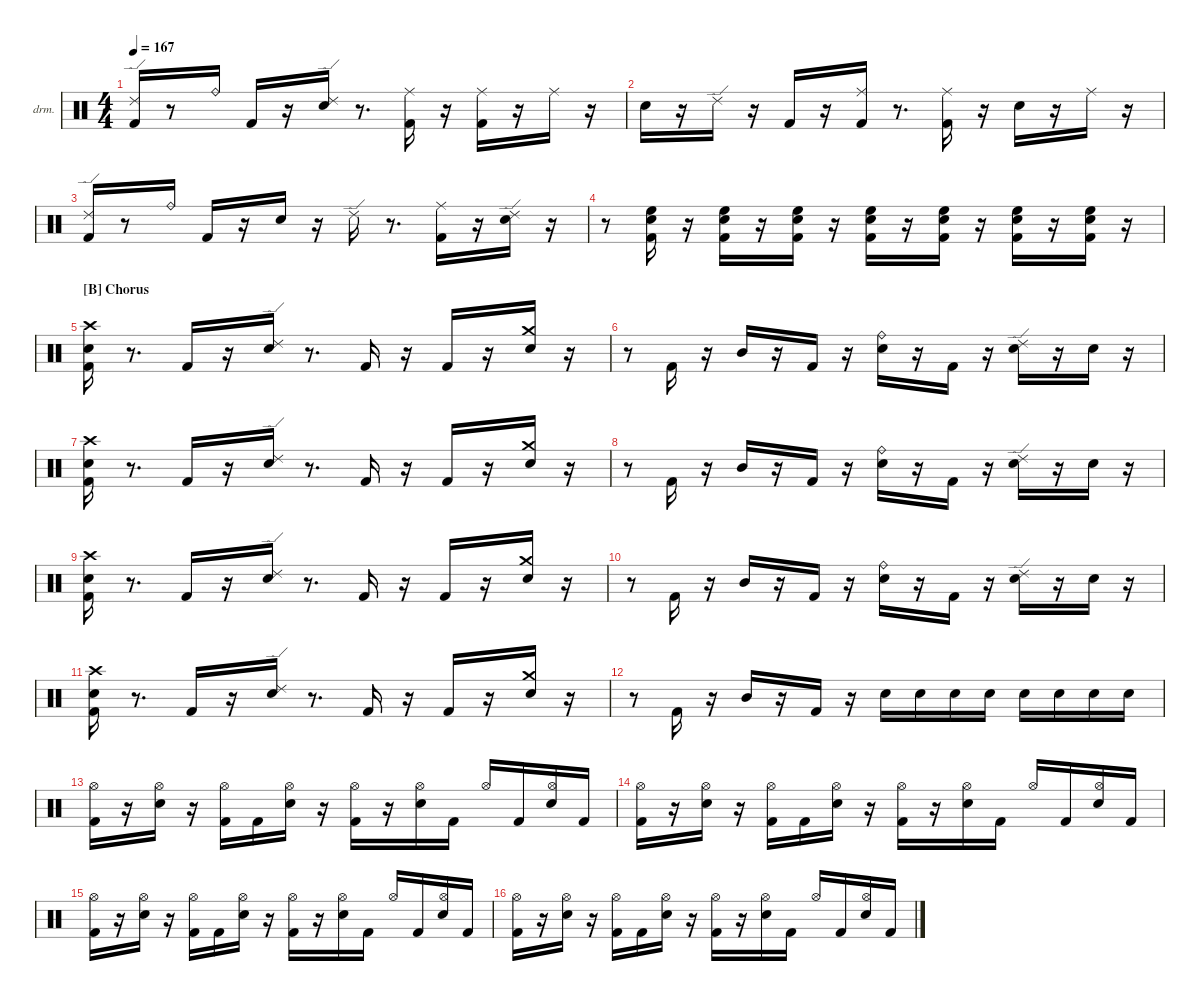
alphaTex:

\hideDynamics
\bracketExtendMode nobrackets
\firstSystemTrackNameOrientation horizontal
\otherSystemsTrackNameOrientation horizontal
\track ("Drums" "drm.") {instrument percussion}
\staff {score}
\articulation defaults
\ts (4 4)
\tempo 167
\clef neutral
\ks aminor
("Kick (hit) 2" "Ride (edge) 2").16{dy ff beam Up} r.8{beam Up} "Ride (bell)".16{dy mf beam Down} "Kick (hit) 2".16{dy ff beam Up} r.16{beam Up} ("Snare (hit) 2" "Ride (edge) 2").16{beam Down} r.8{d beam Down} ("Kick (hit) 2" "Ride (middle)"{acc #}).16{dy mf beam Down} r.16{beam Down} ("Kick (hit) 2" "Ride (middle)"{acc #}).16{dy ff beam Down} r.16{beam Down} "Ride (middle)"{acc #}.16{dy mp beam Down} r.16{beam Down} |
"Snare (hit) 2".16{dy ff beam Down} r.16{beam Down} "Ride (edge) 2".16{dy f beam Down} r.16{beam Down} "Kick (hit) 2".16{dy mf beam Up} r.16{beam Up} ("Kick (hit) 2" "Ride (middle)"{acc #}).16{dy ff beam Down} r.8{d beam Down} ("Kick (hit) 2" "Ride (middle)"{acc #}).16{beam Down} r.16{beam Down} "Snare (hit) 2".16{beam Down} r.16{beam Down} "Ride (middle)"{acc #}.16{beam Down} r.16{beam Down} |
("Ride (edge) 2" "Kick (hit) 2").16{beam Up} r.8{beam Up} "Ride (bell)".16{dy mf beam Down} "Kick (hit) 2".16{dy ff beam Up} r.16{beam Up} "Snare (hit) 2".16{beam Down} r.16{beam Down} "Ride (edge) 2".16{beam Down} r.8{d beam Down} ("Ride (middle)"{acc #} "Kick (hit) 2").16{beam Down} r.16{beam Down} ("Ride (edge) 2" "Snare (hit) 2").16{beam Down} r.16{beam Down} |
r.8{beam Down} ("Kick (hit) 2" "Snare (hit) 2" "High Floor Tom (hit)").16{dy f beam Down} r.16{beam Down} ("High Floor Tom (hit)" "Kick (hit) 2" "Snare (hit) 2").16{dy ff beam Down} r.16{beam Down} ("Snare (hit) 2" "High Floor Tom (hit)" "Kick (hit) 2").16{beam Down} r.16{beam Down} ("Kick (hit) 2" "Snare (hit) 2" "High Floor Tom (hit)").16{beam Down} r.16{beam Down} ("Kick (hit) 2" "Snare (hit) 2" "High Floor Tom (hit)").16{beam Down} r.16{beam Down} ("High Floor Tom (hit)" "Kick (hit) 2" "Snare (hit) 2").16{beam Down} r.16{beam Down} ("Snare (hit) 2" "High Floor Tom (hit)" "Kick (hit) 2").16{beam Down} r.16{beam Down} |
\section ("B" "Chorus")
("Kick (hit) 2" "Snare (hit) 2" "Crash high (hit)"{acc #}).16{beam Down} r.8{d beam Down} "Kick (hit) 2".16{beam Up} r.16{beam Up} ("Ride (edge) 2" "Snare (hit) 2").16{beam Down} r.8{d beam Down} "Kick (hit) 2".16{dy mf beam Up} r.16{beam Up} "Kick (hit) 2".16{dy ff beam Up} r.16{beam Up} ("Crash medium (hit)" "Snare (hit) 2").16{beam Down} r.16{beam Down} |
r.8{beam Down} "Kick (hit) 2".16{beam Up} r.16{beam Up} "Mid Tom (hit)".16{beam Up} r.16{beam Up} "Kick (hit) 2".16{beam Up} r.16{beam Up} ("Snare (hit) 2" "Ride (bell)").16{dy fff beam Down} r.16{beam Down} "Kick (hit) 2".16{dy ff beam Up} r.16{beam Up} ("Ride (edge) 2" "Snare (hit) 2").16{dy f beam Down} r.16{beam Down} "Snare (hit) 2".16{dy mf beam Down} r.16{beam Down} |
("Kick (hit) 2" "Snare (hit) 2" "Crash high (hit)"{acc #}).16{dy ff beam Down} r.8{d beam Down} "Kick (hit) 2".16{beam Up} r.16{beam Up} ("Snare (hit) 2" "Ride (edge) 2").16{beam Down} r.8{d beam Down} "Kick (hit) 2".16{dy mf beam Up} r.16{beam Up} "Kick (hit) 2".16{dy ff beam Up} r.16{beam Up} ("Crash medium (hit)" "Snare (hit) 2").16{beam Down} r.16{beam Down} |
r.8{beam Down} "Kick (hit) 2".16{beam Up} r.16{beam Up} "Mid Tom (hit)".16{beam Up} r.16{beam Up} "Kick (hit) 2".16{beam Up} r.16{beam Up} ("Snare (hit) 2" "Ride (bell)").16{dy f beam Down} r.16{beam Down} "Kick (hit) 2".16{dy ff beam Up} r.16{beam Up} ("Snare (hit) 2" "Ride (edge) 2").16{dy f beam Down} r.16{beam Down} "Snare (hit) 2".16{dy mf beam Down} r.16{beam Down} |
("Kick (hit) 2" "Snare (hit) 2" "Crash high (hit)"{acc #}).16{dy ff beam Down} r.8{d beam Down} "Kick (hit) 2".16{beam Up} r.16{beam Up} ("Snare (hit) 2" "Ride (edge) 2").16{beam Down} r.8{d beam Down} "Kick (hit) 2".16{dy mf beam Up} r.16{beam Up} "Kick (hit) 2".16{dy ff beam Up} r.16{beam Up} ("Crash medium (hit)" "Snare (hit) 2").16{beam Down} r.16{beam Down} |
r.8{beam Down} "Kick (hit) 2".16{beam Up} r.16{beam Up} "Mid Tom (hit)".16{beam Up} r.16{beam Up} "Kick (hit) 2".16{beam Up} r.16{beam Up} ("Snare (hit) 2" "Ride (bell)").16{dy fff beam Down} r.16{beam Down} "Kick (hit) 2".16{dy ff beam Up} r.16{beam Up} ("Snare (hit) 2" "Ride (edge) 2").16{beam Down} r.16{beam Down} "Snare (hit) 2".16{dy mf beam Down} r.16{beam Down} |
("Snare (hit) 2" "Kick (hit) 2" "Crash high (hit)"{acc #}).16{dy ff beam Down} r.8{d beam Down} "Kick (hit) 2".16{beam Up} r.16{beam Up} ("Snare (hit) 2" "Ride (edge) 2").16{beam Down} r.8{d beam Down} "Kick (hit) 2".16{dy mf beam Up} r.16{beam Up} "Kick (hit) 2".16{dy ff beam Up} r.16{beam Up} ("Snare (hit) 2" "Crash medium (hit)").16{beam Down} r.16{beam Down} |
r.8{beam Down} "Kick (hit) 2".16{beam Up} r.16{beam Up} "Mid Tom (hit)".16{beam Up} r.16{beam Up} "Kick (hit) 2".16{beam Up} r.16{beam Up} "Snare (hit) 2".16{dy f beam Down} "Snare (hit) 2".16{dy mf beam Down} "Snare (hit) 2".16{dy ff beam Down} "Snare (hit) 2".16{dy mf beam Down} "Snare (hit) 2".16{dy ff beam Down} "Snare (hit) 2".16{dy f beam Down} "Snare (hit) 2".16{dy fff beam Down} "Snare (hit) 2".16{beam Down} |
("Kick (hit) 2" "Hi-Hat (open)"{acc #}).16{beam Down} r.16{beam Down} ("Snare (hit) 2" "Hi-Hat (open)"{acc #}).16{dy ff beam Down} r.16{beam Down} ("Kick (hit) 2" "Hi-Hat (open)"{acc #}).16{dy f beam Down} "Kick (hit) 2".16{dy ff beam Down} ("Snare (hit) 2" "Hi-Hat (open)"{acc #}).16{beam Down} r.16{beam Down} ("Kick (hit) 2" "Hi-Hat (open)"{acc #}).16{beam Down} r.16{beam Down} ("Snare (hit) 2" "Hi-Hat (open)"{acc #}).16{beam Down} "Kick (hit) 2".16{beam Down} "Hi-Hat (open)"{acc #}.16{beam Up} "Kick (hit) 2".16{beam Up} ("Hi-Hat (open)"{acc #} "Snare (hit) 2").16{dy mf beam Up} "Kick (hit) 2".16{beam Up} |
("Hi-Hat (open)"{acc #} "Kick (hit) 2").16{dy ff beam Down} r.16{beam Down} ("Snare (hit) 2" "Hi-Hat (open)"{acc #}).16{beam Down} r.16{beam Down} ("Kick (hit) 2" "Hi-Hat (open)"{acc #}).16{beam Down} "Kick (hit) 2".16{beam Down} ("Snare (hit) 2" "Hi-Hat (open)"{acc #}).16{beam Down} r.16{beam Down} ("Kick (hit) 2" "Hi-Hat (open)"{acc #}).16{beam Down} r.16{beam Down} ("Snare (hit) 2" "Hi-Hat (open)"{acc #}).16{dy mf beam Down} "Kick (hit) 2".16{dy ff beam Down} "Hi-Hat (open)"{acc #}.16{beam Up} "Kick (hit) 2".16{beam Up} ("Snare (hit) 2" "Hi-Hat (open)"{acc #}).16{dy f beam Up} "Kick (hit) 2".16{dy ff beam Up} |
("Hi-Hat (open)"{acc #} "Kick (hit) 2").16{dy fff beam Down} r.16{beam Down} ("Hi-Hat (open)"{acc #} "Snare (hit) 2").16{dy mf beam Down} r.16{beam Down} ("Kick (hit) 2" "Hi-Hat (open)"{acc #}).16{dy f beam Down} "Kick (hit) 2".16{dy ff beam Down} ("Snare (hit) 2" "Hi-Hat (open)"{acc #}).16{beam Down} r.16{beam Down} ("Kick (hit) 2" "Hi-Hat (open)"{acc #}).16{beam Down} r.16{beam Down} ("Snare (hit) 2" "Hi-Hat (open)"{acc #}).16{beam Down} "Kick (hit) 2".16{beam Down} "Hi-Hat (open)"{acc #}.16{beam Up} "Kick (hit) 2".16{beam Up} ("Snare (hit) 2" "Hi-Hat (open)"{acc #}).16{beam Up} "Kick (hit) 2".16{dy mf beam Up} |
("Kick (hit) 2" "Hi-Hat (open)"{acc #}).16{dy ff beam Down} r.16{beam Down} ("Snare (hit) 2" "Hi-Hat (open)"{acc #}).16{dy mf beam Down} r.16{beam Down} ("Kick (hit) 2" "Hi-Hat (open)"{acc #}).16{dy ff beam Down} "Kick (hit) 2".16{beam Down} ("Hi-Hat (open)"{acc #} "Snare (hit) 2").16{beam Down} r.16{beam Down} ("Hi-Hat (open)"{acc #} "Kick (hit) 2").16{beam Down} r.16{beam Down} ("Hi-Hat (open)"{acc #} "Snare (hit) 2").16{beam Down} "Kick (hit) 2".16{beam Down} "Hi-Hat (open)"{acc #}.16{beam Up} "Kick (hit) 2".16{beam Up} ("Hi-Hat (open)"{acc #} "Snare (hit) 2").16{dy f beam Up} "Kick (hit) 2".16{dy ff beam Up}
